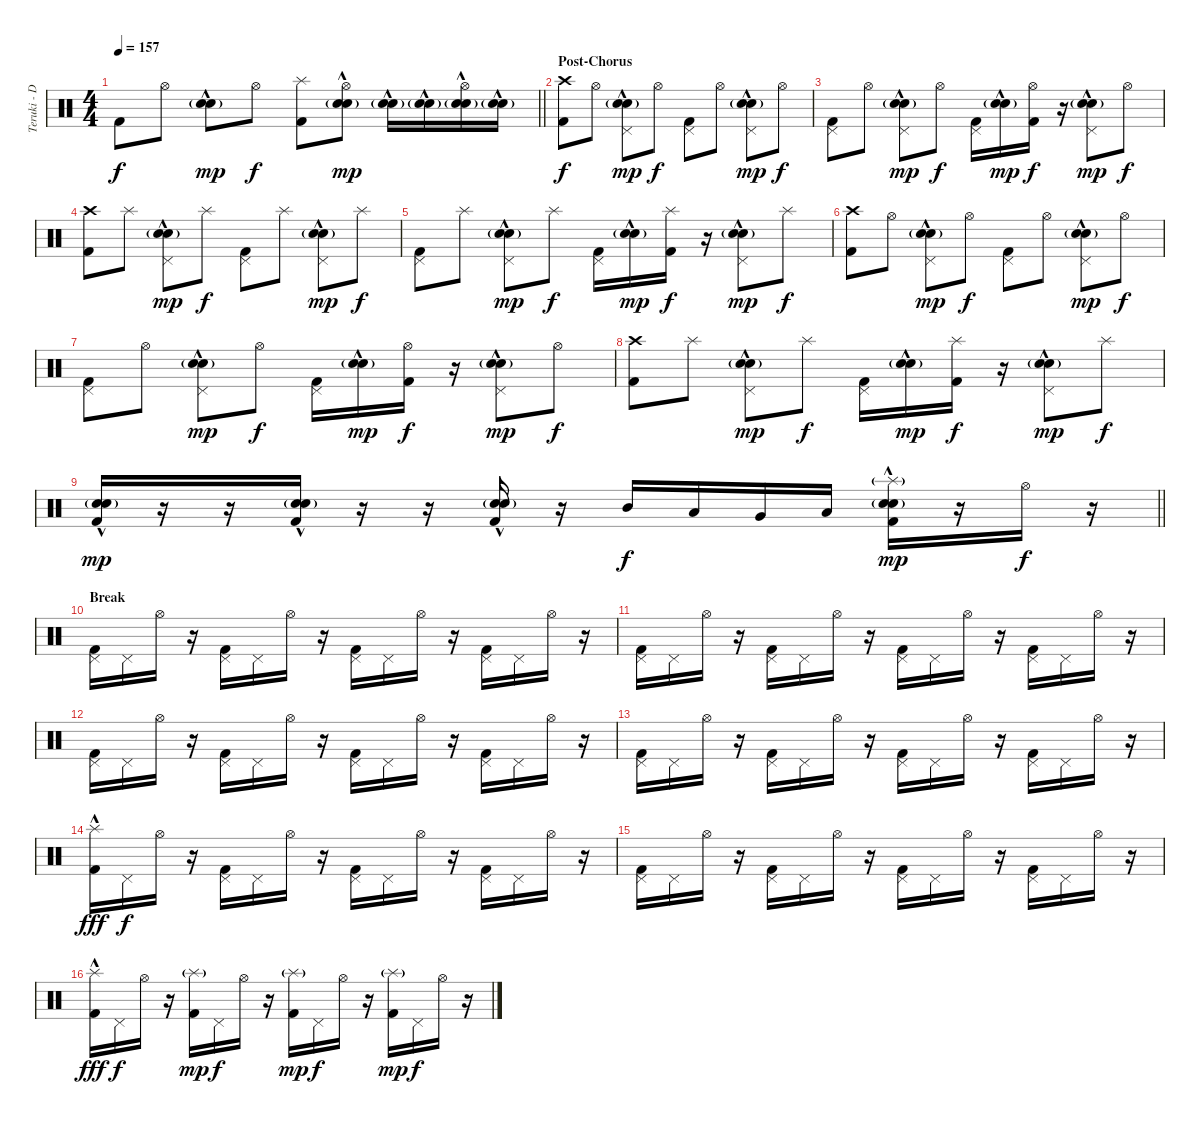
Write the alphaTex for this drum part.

\track ("Teruki - Drums" "Teruki - D") {instrument percussion}
\staff {score}
\articulation defaults
\ts (4 4)
\tempo 157
\clef neutral
\barLineRight lightlight
\ks c "Kick (hit) 2".8{dy f} "Hi-Hat (open)".8
("Electric Snare (hit)"{hac} "Snare (hit) 2"{g}).8{dy mp} "Hi-Hat (open)".8{dy f} ("Splash (hit)" "Kick (hit) 2").8 ("Hi-Hat (open)" "Electric Snare (hit)"{hac} "Snare (hit) 2"{g}).8{dy mp} ("Electric Snare (hit)"{hac} "Snare (hit) 2"{g}).16 ("Electric Snare (hit)"{hac} "Snare (hit) 2"{g}).16 ("Hi-Hat (open)" "Electric Snare (hit)"{hac} "Snare (hit) 2"{g}).16 ("Electric Snare (hit)"{hac} "Snare (hit) 2"{g}).16 |
\section ("" "Post-Chorus")
("Crash high (hit)" "Kick (hit) 2").8{dy f} "Hi-Hat (open)".8 ("Pedal Hi-Hat (hit)" "Electric Snare (hit)"{hac} "Snare (hit) 2"{g}).8{dy mp} "Hi-Hat (open)".8{dy f} ("Pedal Hi-Hat (hit)" "Kick (hit) 2").8 "Hi-Hat (open)".8 ("Pedal Hi-Hat (hit)" "Electric Snare (hit)"{hac} "Snare (hit) 2"{g}).8{dy mp} "Hi-Hat (open)".8{dy f} |
("Pedal Hi-Hat (hit)" "Kick (hit) 2").8 "Hi-Hat (open)".8 ("Pedal Hi-Hat (hit)" "Electric Snare (hit)"{hac} "Snare (hit) 2"{g}).8{dy mp} "Hi-Hat (open)".8{dy f} ("Pedal Hi-Hat (hit)" "Kick (hit) 2").16 ("Electric Snare (hit)"{hac} "Snare (hit) 2"{g}).16{dy mp} ("Hi-Hat (open)" "Kick (hit) 2").16{dy f} r.16 ("Pedal Hi-Hat (hit)" "Electric Snare (hit)"{hac} "Snare (hit) 2"{g}).8{dy mp} "Hi-Hat (open)".8{dy f} |
("Crash high (hit)" "Kick (hit) 2").8 "Splash (hit)".8 ("Pedal Hi-Hat (hit)" "Electric Snare (hit)"{hac} "Snare (hit) 2"{g}).8{dy mp} "Splash (hit)".8{dy f} ("Pedal Hi-Hat (hit)" "Kick (hit) 2").8 "Splash (hit)".8 ("Pedal Hi-Hat (hit)" "Electric Snare (hit)"{hac} "Snare (hit) 2"{g}).8{dy mp} "Splash (hit)".8{dy f} |
("Pedal Hi-Hat (hit)" "Kick (hit) 2").8 "Splash (hit)".8 ("Pedal Hi-Hat (hit)" "Electric Snare (hit)"{hac} "Snare (hit) 2"{g}).8{dy mp} "Splash (hit)".8{dy f} ("Pedal Hi-Hat (hit)" "Kick (hit) 2").16 ("Electric Snare (hit)"{hac} "Snare (hit) 2"{g}).16{dy mp} ("Splash (hit)" "Kick (hit) 2").16{dy f} r.16 ("Pedal Hi-Hat (hit)" "Electric Snare (hit)"{hac} "Snare (hit) 2"{g}).8{dy mp} "Splash (hit)".8{dy f} |
("Crash high (hit)" "Kick (hit) 2").8 "Hi-Hat (open)".8 ("Pedal Hi-Hat (hit)" "Electric Snare (hit)"{hac} "Snare (hit) 2"{g}).8{dy mp} "Hi-Hat (open)".8{dy f} ("Pedal Hi-Hat (hit)" "Kick (hit) 2").8 "Hi-Hat (open)".8 ("Pedal Hi-Hat (hit)" "Electric Snare (hit)"{hac} "Snare (hit) 2"{g}).8{dy mp} "Hi-Hat (open)".8{dy f} |
("Pedal Hi-Hat (hit)" "Kick (hit) 2").8 "Hi-Hat (open)".8 ("Pedal Hi-Hat (hit)" "Electric Snare (hit)"{hac} "Snare (hit) 2"{g}).8{dy mp} "Hi-Hat (open)".8{dy f} ("Pedal Hi-Hat (hit)" "Kick (hit) 2").16 ("Electric Snare (hit)"{hac} "Snare (hit) 2"{g}).16{dy mp} ("Hi-Hat (open)" "Kick (hit) 2").16{dy f} r.16 ("Pedal Hi-Hat (hit)" "Electric Snare (hit)"{hac} "Snare (hit) 2"{g}).8{dy mp} "Hi-Hat (open)".8{dy f} |
("Crash high (hit)" "Kick (hit) 2").8 "Splash (hit)".8 ("Pedal Hi-Hat (hit)" "Electric Snare (hit)"{hac} "Snare (hit) 2"{g}).8{dy mp} "Splash (hit)".8{dy f} ("Pedal Hi-Hat (hit)" "Kick (hit) 2").16 ("Electric Snare (hit)"{hac} "Snare (hit) 2"{g}).16{dy mp} ("Splash (hit)" "Kick (hit) 2").16{dy f} r.16 ("Pedal Hi-Hat (hit)" "Electric Snare (hit)"{hac} "Snare (hit) 2"{g}).8{dy mp} "Splash (hit)".8{dy f} |
\barLineRight lightlight
("Electric Snare (hit)"{hac} "Snare (hit) 2"{g} "Kick (hit) 2").16{dy mp} r.16 r.16 ("Electric Snare (hit)"{hac} "Snare (hit) 2"{g} "Kick (hit) 2").16 r.16 r.16 ("Electric Snare (hit)"{hac} "Snare (hit) 2"{g} "Kick (hit) 2").16 r.16 "Mid Tom (hit)".16{dy f} "Low Tom (hit)".16 "Very Low Tom (hit)".16 "Low Floor Tom (hit)".16 ("Splash (hit)"{g} "Electric Snare (hit)"{hac} "Snare (hit) 2"{g} "Kick (hit) 2").16{dy mp} r.16 "Hi-Hat (open)".16{dy f} r.16 |
\section ("" "Break")
("Pedal Hi-Hat (hit)" "Kick (hit) 2").16 "Pedal Hi-Hat (hit)".16 "Hi-Hat (open)".16 r.16 ("Pedal Hi-Hat (hit)" "Kick (hit) 2").16 "Pedal Hi-Hat (hit)".16 "Hi-Hat (open)".16 r.16 ("Pedal Hi-Hat (hit)" "Kick (hit) 2").16 "Pedal Hi-Hat (hit)".16 "Hi-Hat (open)".16 r.16 ("Pedal Hi-Hat (hit)" "Kick (hit) 2").16 "Pedal Hi-Hat (hit)".16 "Hi-Hat (open)".16 r.16 |
("Pedal Hi-Hat (hit)" "Kick (hit) 2").16 "Pedal Hi-Hat (hit)".16 "Hi-Hat (open)".16 r.16 ("Pedal Hi-Hat (hit)" "Kick (hit) 2").16 "Pedal Hi-Hat (hit)".16 "Hi-Hat (open)".16 r.16 ("Pedal Hi-Hat (hit)" "Kick (hit) 2").16 "Pedal Hi-Hat (hit)".16 "Hi-Hat (open)".16 r.16 ("Pedal Hi-Hat (hit)" "Kick (hit) 2").16 "Pedal Hi-Hat (hit)".16 "Hi-Hat (open)".16 r.16 |
("Pedal Hi-Hat (hit)" "Kick (hit) 2").16 "Pedal Hi-Hat (hit)".16 "Hi-Hat (open)".16 r.16 ("Pedal Hi-Hat (hit)" "Kick (hit) 2").16 "Pedal Hi-Hat (hit)".16 "Hi-Hat (open)".16 r.16 ("Pedal Hi-Hat (hit)" "Kick (hit) 2").16 "Pedal Hi-Hat (hit)".16 "Hi-Hat (open)".16 r.16 ("Pedal Hi-Hat (hit)" "Kick (hit) 2").16 "Pedal Hi-Hat (hit)".16 "Hi-Hat (open)".16 r.16 |
("Pedal Hi-Hat (hit)" "Kick (hit) 2").16 "Pedal Hi-Hat (hit)".16 "Hi-Hat (open)".16 r.16 ("Pedal Hi-Hat (hit)" "Kick (hit) 2").16 "Pedal Hi-Hat (hit)".16 "Hi-Hat (open)".16 r.16 ("Pedal Hi-Hat (hit)" "Kick (hit) 2").16 "Pedal Hi-Hat (hit)".16 "Hi-Hat (open)".16 r.16 ("Pedal Hi-Hat (hit)" "Kick (hit) 2").16 "Pedal Hi-Hat (hit)".16 "Hi-Hat (open)".16 r.16 |
("Splash (hit)" "Kick (hit) 2"{hac}).16{dy fff} "Pedal Hi-Hat (hit)".16{dy f} "Hi-Hat (open)".16 r.16 ("Pedal Hi-Hat (hit)" "Kick (hit) 2").16 "Pedal Hi-Hat (hit)".16 "Hi-Hat (open)".16 r.16 ("Pedal Hi-Hat (hit)" "Kick (hit) 2").16 "Pedal Hi-Hat (hit)".16 "Hi-Hat (open)".16 r.16 ("Pedal Hi-Hat (hit)" "Kick (hit) 2").16 "Pedal Hi-Hat (hit)".16 "Hi-Hat (open)".16 r.16 |
("Pedal Hi-Hat (hit)" "Kick (hit) 2").16 "Pedal Hi-Hat (hit)".16 "Hi-Hat (open)".16 r.16 ("Pedal Hi-Hat (hit)" "Kick (hit) 2").16 "Pedal Hi-Hat (hit)".16 "Hi-Hat (open)".16 r.16 ("Pedal Hi-Hat (hit)" "Kick (hit) 2").16 "Pedal Hi-Hat (hit)".16 "Hi-Hat (open)".16 r.16 ("Pedal Hi-Hat (hit)" "Kick (hit) 2").16 "Pedal Hi-Hat (hit)".16 "Hi-Hat (open)".16 r.16 |
("Splash (hit)" "Kick (hit) 2"{hac}).16{dy fff} "Pedal Hi-Hat (hit)".16{dy f} "Hi-Hat (open)".16 r.16 ("Splash (hit)"{g} "Kick (hit) 2").16{dy mp} "Pedal Hi-Hat (hit)".16{dy f} "Hi-Hat (open)".16 r.16 ("Splash (hit)"{g} "Kick (hit) 2").16{dy mp} "Pedal Hi-Hat (hit)".16{dy f} "Hi-Hat (open)".16 r.16 ("Splash (hit)"{g} "Kick (hit) 2").16{dy mp} "Pedal Hi-Hat (hit)".16{dy f} "Hi-Hat (open)".16 r.16
